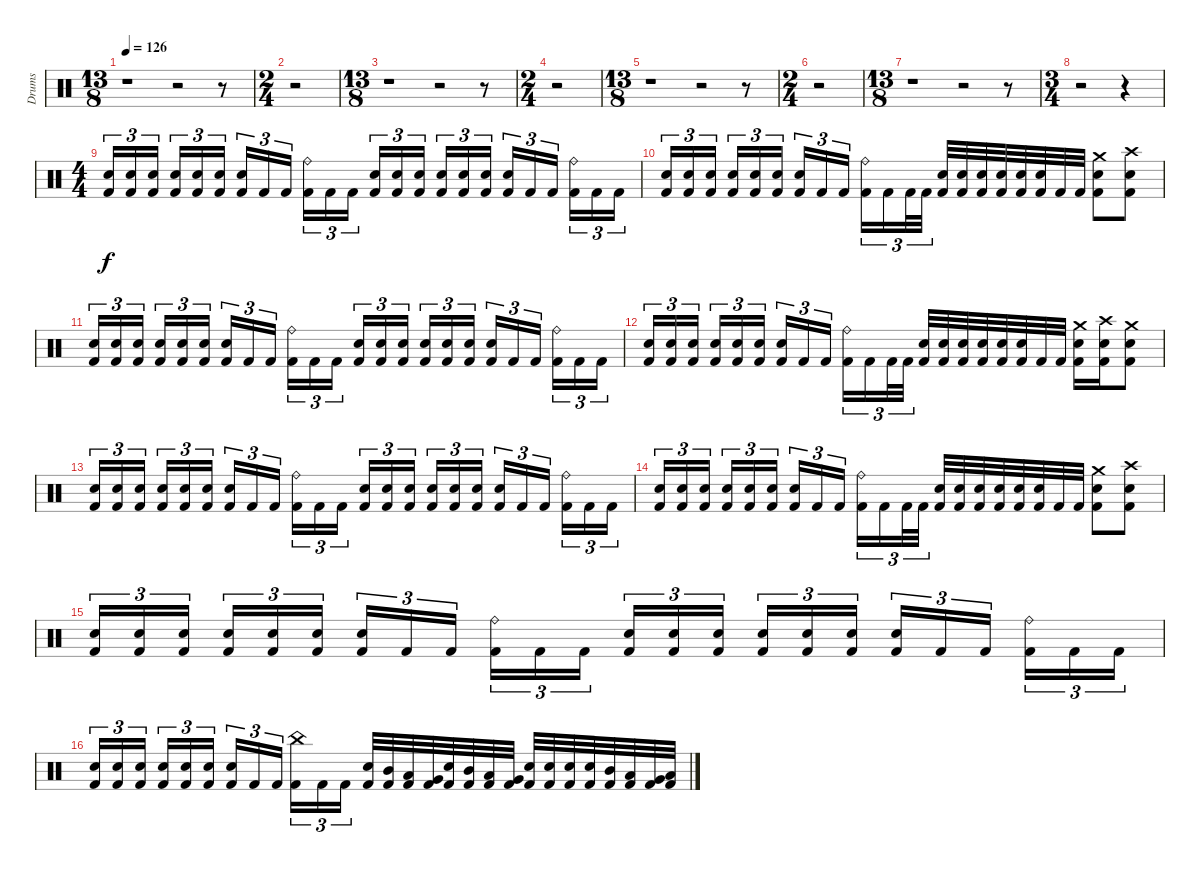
\track ("Drums" "Drums") {instrument percussion}
\staff {score}
\articulation defaults
\ts (13 8)
\tempo 126
\clef neutral
\ks c
r.1{dy f} r.2 r.8 |
\ts (2 4)
r.2 |
\ts (13 8)
r.1 r.2 r.8 |
\ts (2 4)
r.2 |
\ts (13 8)
r.1 r.2 r.8 |
\ts (2 4)
r.2 |
\ts (13 8)
r.1 r.2 r.8 |
\ts (3 4)
r.2 r.4 |
\ts (4 4)
("Electric Snare (hit)" "Kick (hit) 2").16{tu (3 2)} ("Electric Snare (hit)" "Kick (hit) 2").16{tu (3 2)} ("Electric Snare (hit)" "Kick (hit) 2").16{tu (3 2)} ("Electric Snare (hit)" "Kick (hit) 2").16{tu (3 2)} ("Electric Snare (hit)" "Kick (hit) 2").16{tu (3 2)} ("Electric Snare (hit)" "Kick (hit) 2").16{tu (3 2)} ("Electric Snare (hit)" "Kick (hit) 2").16{tu (3 2)} "Kick (hit) 2".16{tu (3 2)} "Kick (hit) 2".16{tu (3 2)} ("Ride (bell)" "Kick (hit) 2").16{tu (3 2)} "Kick (hit) 2".16{tu (3 2)} "Kick (hit) 2".16{tu (3 2)} ("Electric Snare (hit)" "Kick (hit) 2").16{tu (3 2)} ("Electric Snare (hit)" "Kick (hit) 2").16{tu (3 2)} ("Electric Snare (hit)" "Kick (hit) 2").16{tu (3 2)} ("Electric Snare (hit)" "Kick (hit) 2").16{tu (3 2)} ("Electric Snare (hit)" "Kick (hit) 2").16{tu (3 2)} ("Electric Snare (hit)" "Kick (hit) 2").16{tu (3 2)} ("Electric Snare (hit)" "Kick (hit) 2").16{tu (3 2)} "Kick (hit) 2".16{tu (3 2)} "Kick (hit) 2".16{tu (3 2)} ("Ride (bell)" "Kick (hit) 2").16{tu (3 2)} "Kick (hit) 2".16{tu (3 2)} "Kick (hit) 2".16{tu (3 2)} |
("Electric Snare (hit)" "Kick (hit) 2").16{tu (3 2)} ("Electric Snare (hit)" "Kick (hit) 2").16{tu (3 2)} ("Electric Snare (hit)" "Kick (hit) 2").16{tu (3 2)} ("Electric Snare (hit)" "Kick (hit) 2").16{tu (3 2)} ("Electric Snare (hit)" "Kick (hit) 2").16{tu (3 2)} ("Electric Snare (hit)" "Kick (hit) 2").16{tu (3 2)} ("Electric Snare (hit)" "Kick (hit) 2").16{tu (3 2)} "Kick (hit) 2".16{tu (3 2)} "Kick (hit) 2".16{tu (3 2)} ("Ride (bell)" "Kick (hit) 2").16{tu (3 2)} "Kick (hit) 2".16{tu (3 2)} "Kick (hit) 2".32{tu (3 2)} "Kick (hit) 2".32{tu (3 2)} ("Electric Snare (hit)" "Kick (hit) 2").32 ("Electric Snare (hit)" "Kick (hit) 2").32 ("Electric Snare (hit)" "Kick (hit) 2").32 ("Electric Snare (hit)" "Kick (hit) 2").32 ("Electric Snare (hit)" "Kick (hit) 2").32 ("Electric Snare (hit)" "Kick (hit) 2").32 "Kick (hit) 2".32 "Kick (hit) 2".32 ("Crash medium (hit)" "Electric Snare (hit)" "Kick (hit) 2").8 ("Crash high (hit)" "Electric Snare (hit)" "Kick (hit) 2").8 |
("Electric Snare (hit)" "Kick (hit) 2").16{tu (3 2)} ("Electric Snare (hit)" "Kick (hit) 2").16{tu (3 2)} ("Electric Snare (hit)" "Kick (hit) 2").16{tu (3 2)} ("Electric Snare (hit)" "Kick (hit) 2").16{tu (3 2)} ("Electric Snare (hit)" "Kick (hit) 2").16{tu (3 2)} ("Electric Snare (hit)" "Kick (hit) 2").16{tu (3 2)} ("Electric Snare (hit)" "Kick (hit) 2").16{tu (3 2)} "Kick (hit) 2".16{tu (3 2)} "Kick (hit) 2".16{tu (3 2)} ("Ride (bell)" "Kick (hit) 2").16{tu (3 2)} "Kick (hit) 2".16{tu (3 2)} "Kick (hit) 2".16{tu (3 2)} ("Electric Snare (hit)" "Kick (hit) 2").16{tu (3 2)} ("Electric Snare (hit)" "Kick (hit) 2").16{tu (3 2)} ("Electric Snare (hit)" "Kick (hit) 2").16{tu (3 2)} ("Electric Snare (hit)" "Kick (hit) 2").16{tu (3 2)} ("Electric Snare (hit)" "Kick (hit) 2").16{tu (3 2)} ("Electric Snare (hit)" "Kick (hit) 2").16{tu (3 2)} ("Electric Snare (hit)" "Kick (hit) 2").16{tu (3 2)} "Kick (hit) 2".16{tu (3 2)} "Kick (hit) 2".16{tu (3 2)} ("Ride (bell)" "Kick (hit) 2").16{tu (3 2)} "Kick (hit) 2".16{tu (3 2)} "Kick (hit) 2".16{tu (3 2)} |
("Electric Snare (hit)" "Kick (hit) 2").16{tu (3 2)} ("Electric Snare (hit)" "Kick (hit) 2").16{tu (3 2)} ("Electric Snare (hit)" "Kick (hit) 2").16{tu (3 2)} ("Electric Snare (hit)" "Kick (hit) 2").16{tu (3 2)} ("Electric Snare (hit)" "Kick (hit) 2").16{tu (3 2)} ("Electric Snare (hit)" "Kick (hit) 2").16{tu (3 2)} ("Electric Snare (hit)" "Kick (hit) 2").16{tu (3 2)} "Kick (hit) 2".16{tu (3 2)} "Kick (hit) 2".16{tu (3 2)} ("Ride (bell)" "Kick (hit) 2").16{tu (3 2)} "Kick (hit) 2".16{tu (3 2)} "Kick (hit) 2".32{tu (3 2)} "Kick (hit) 2".32{tu (3 2)} ("Electric Snare (hit)" "Kick (hit) 2").32 ("Electric Snare (hit)" "Kick (hit) 2").32 ("Electric Snare (hit)" "Kick (hit) 2").32 ("Electric Snare (hit)" "Kick (hit) 2").32 ("Electric Snare (hit)" "Kick (hit) 2").32 ("Electric Snare (hit)" "Kick (hit) 2").32 "Kick (hit) 2".32 "Kick (hit) 2".32 ("Crash medium (hit)" "Electric Snare (hit)" "Kick (hit) 2").16 ("Crash high (hit)" "Electric Snare (hit)" "Kick (hit) 2").16 ("Crash medium (hit)" "Electric Snare (hit)" "Kick (hit) 2").8 |
("Electric Snare (hit)" "Kick (hit) 2").16{tu (3 2)} ("Electric Snare (hit)" "Kick (hit) 2").16{tu (3 2)} ("Electric Snare (hit)" "Kick (hit) 2").16{tu (3 2)} ("Electric Snare (hit)" "Kick (hit) 2").16{tu (3 2)} ("Electric Snare (hit)" "Kick (hit) 2").16{tu (3 2)} ("Electric Snare (hit)" "Kick (hit) 2").16{tu (3 2)} ("Electric Snare (hit)" "Kick (hit) 2").16{tu (3 2)} "Kick (hit) 2".16{tu (3 2)} "Kick (hit) 2".16{tu (3 2)} ("Ride (bell)" "Kick (hit) 2").16{tu (3 2)} "Kick (hit) 2".16{tu (3 2)} "Kick (hit) 2".16{tu (3 2)} ("Electric Snare (hit)" "Kick (hit) 2").16{tu (3 2)} ("Electric Snare (hit)" "Kick (hit) 2").16{tu (3 2)} ("Electric Snare (hit)" "Kick (hit) 2").16{tu (3 2)} ("Electric Snare (hit)" "Kick (hit) 2").16{tu (3 2)} ("Electric Snare (hit)" "Kick (hit) 2").16{tu (3 2)} ("Electric Snare (hit)" "Kick (hit) 2").16{tu (3 2)} ("Electric Snare (hit)" "Kick (hit) 2").16{tu (3 2)} "Kick (hit) 2".16{tu (3 2)} "Kick (hit) 2".16{tu (3 2)} ("Ride (bell)" "Kick (hit) 2").16{tu (3 2)} "Kick (hit) 2".16{tu (3 2)} "Kick (hit) 2".16{tu (3 2)} |
("Electric Snare (hit)" "Kick (hit) 2").16{tu (3 2)} ("Electric Snare (hit)" "Kick (hit) 2").16{tu (3 2)} ("Electric Snare (hit)" "Kick (hit) 2").16{tu (3 2)} ("Electric Snare (hit)" "Kick (hit) 2").16{tu (3 2)} ("Electric Snare (hit)" "Kick (hit) 2").16{tu (3 2)} ("Electric Snare (hit)" "Kick (hit) 2").16{tu (3 2)} ("Electric Snare (hit)" "Kick (hit) 2").16{tu (3 2)} "Kick (hit) 2".16{tu (3 2)} "Kick (hit) 2".16{tu (3 2)} ("Ride (bell)" "Kick (hit) 2").16{tu (3 2)} "Kick (hit) 2".16{tu (3 2)} "Kick (hit) 2".32{tu (3 2)} "Kick (hit) 2".32{tu (3 2)} ("Electric Snare (hit)" "Kick (hit) 2").32 ("Electric Snare (hit)" "Kick (hit) 2").32 ("Electric Snare (hit)" "Kick (hit) 2").32 ("Electric Snare (hit)" "Kick (hit) 2").32 ("Electric Snare (hit)" "Kick (hit) 2").32 ("Electric Snare (hit)" "Kick (hit) 2").32 "Kick (hit) 2".32 "Kick (hit) 2".32 ("Crash medium (hit)" "Electric Snare (hit)" "Kick (hit) 2").8 ("Crash high (hit)" "Electric Snare (hit)" "Kick (hit) 2").8 |
("Electric Snare (hit)" "Kick (hit) 2").16{tu (3 2)} ("Electric Snare (hit)" "Kick (hit) 2").16{tu (3 2)} ("Electric Snare (hit)" "Kick (hit) 2").16{tu (3 2)} ("Electric Snare (hit)" "Kick (hit) 2").16{tu (3 2)} ("Electric Snare (hit)" "Kick (hit) 2").16{tu (3 2)} ("Electric Snare (hit)" "Kick (hit) 2").16{tu (3 2)} ("Electric Snare (hit)" "Kick (hit) 2").16{tu (3 2)} "Kick (hit) 2".16{tu (3 2)} "Kick (hit) 2".16{tu (3 2)} ("Ride (bell)" "Kick (hit) 2").16{tu (3 2)} "Kick (hit) 2".16{tu (3 2)} "Kick (hit) 2".16{tu (3 2)} ("Electric Snare (hit)" "Kick (hit) 2").16{tu (3 2)} ("Electric Snare (hit)" "Kick (hit) 2").16{tu (3 2)} ("Electric Snare (hit)" "Kick (hit) 2").16{tu (3 2)} ("Electric Snare (hit)" "Kick (hit) 2").16{tu (3 2)} ("Electric Snare (hit)" "Kick (hit) 2").16{tu (3 2)} ("Electric Snare (hit)" "Kick (hit) 2").16{tu (3 2)} ("Electric Snare (hit)" "Kick (hit) 2").16{tu (3 2)} "Kick (hit) 2".16{tu (3 2)} "Kick (hit) 2".16{tu (3 2)} ("Ride (bell)" "Kick (hit) 2").16{tu (3 2)} "Kick (hit) 2".16{tu (3 2)} "Kick (hit) 2".16{tu (3 2)} |
("Electric Snare (hit)" "Kick (hit) 2").16{tu (3 2)} ("Electric Snare (hit)" "Kick (hit) 2").16{tu (3 2)} ("Electric Snare (hit)" "Kick (hit) 2").16{tu (3 2)} ("Electric Snare (hit)" "Kick (hit) 2").16{tu (3 2)} ("Electric Snare (hit)" "Kick (hit) 2").16{tu (3 2)} ("Electric Snare (hit)" "Kick (hit) 2").16{tu (3 2)} ("Electric Snare (hit)" "Kick (hit) 2").16{tu (3 2)} "Kick (hit) 2".16{tu (3 2)} "Kick (hit) 2".16{tu (3 2)} ("China (hit)" "Kick (hit) 2").16{tu (3 2)} "Kick (hit) 2".16{tu (3 2)} "Kick (hit) 2".16{tu (3 2)} ("Electric Snare (hit)" "Kick (hit) 2").32 ("Mid Tom (hit)" "Kick (hit) 2").32 ("Low Tom (hit)" "Kick (hit) 2").32 ("Very Low Tom (hit)" "Kick (hit) 2").32 ("Electric Snare (hit)" "Kick (hit) 2").32 ("Mid Tom (hit)" "Kick (hit) 2").32 ("Low Tom (hit)" "Kick (hit) 2").32 ("Very Low Tom (hit)" "Kick (hit) 2").32 ("Electric Snare (hit)" "Kick (hit) 2").32 ("Electric Snare (hit)" "Kick (hit) 2").32 ("Electric Snare (hit)" "Kick (hit) 2").32 ("Electric Snare (hit)" "Kick (hit) 2").32 ("Mid Tom (hit)" "Kick (hit) 2").32 ("Low Tom (hit)" "Kick (hit) 2").32 ("Very Low Tom (hit)" "Kick (hit) 2").32 ("Low Floor Tom (hit)" "Kick (hit) 2").32
